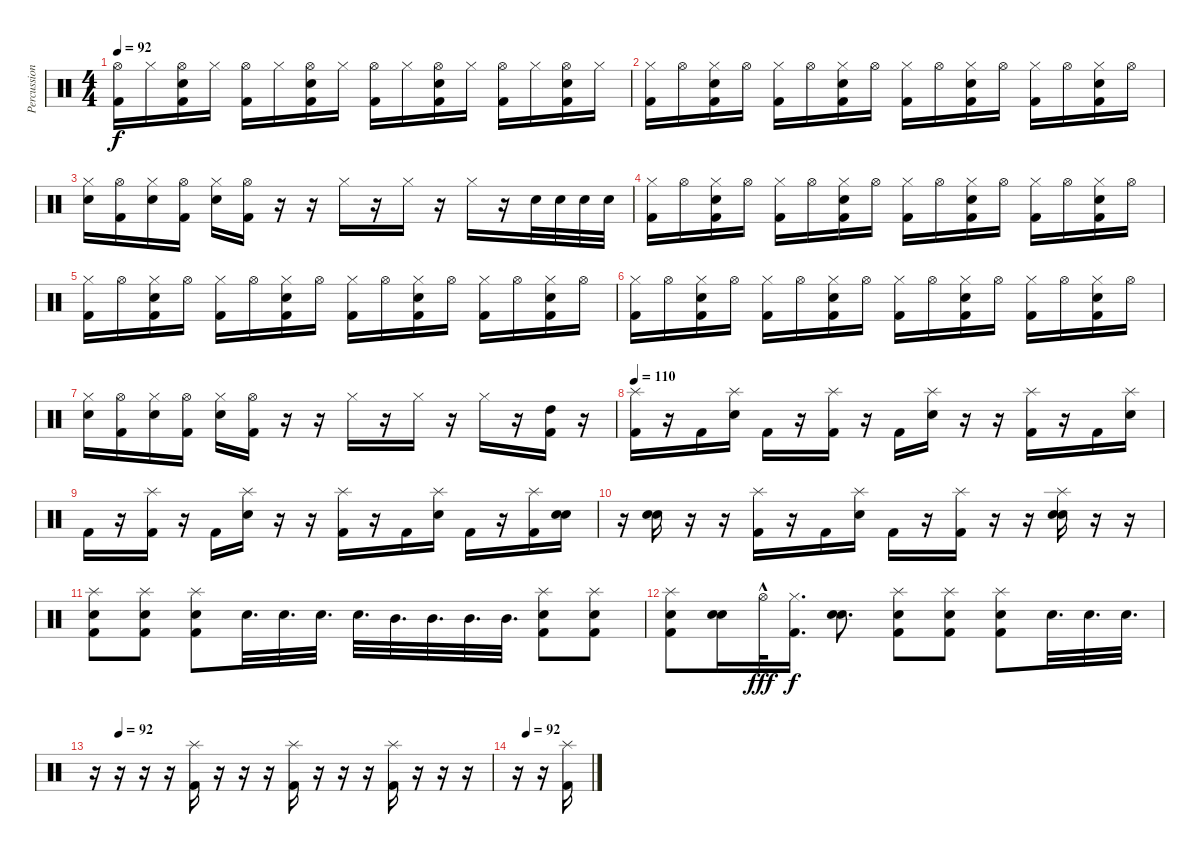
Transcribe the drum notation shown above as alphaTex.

\track ("Percussion" "Percussion") {instrument percussion}
\staff {score}
\articulation defaults
\ts (4 4)
\tempo 92
\clef neutral
\ks c
("Hi-Hat (open)" "Kick (hit) 2").16{dy f} "Hi-Hat (closed)".16 ("Hi-Hat (open)" "Electric Snare (hit)" "Kick (hit) 2").16 "Hi-Hat (closed)".16 ("Hi-Hat (open)" "Kick (hit) 2").16 "Hi-Hat (closed)".16 ("Hi-Hat (open)" "Electric Snare (hit)" "Kick (hit) 2").16 "Hi-Hat (closed)".16 ("Hi-Hat (open)" "Kick (hit) 2").16 "Hi-Hat (closed)".16 ("Hi-Hat (open)" "Electric Snare (hit)" "Kick (hit) 2").16 "Hi-Hat (closed)".16 ("Hi-Hat (open)" "Kick (hit) 2").16 "Hi-Hat (closed)".16 ("Hi-Hat (open)" "Electric Snare (hit)" "Kick (hit) 2").16 "Hi-Hat (closed)".16 |
("Hi-Hat (closed)" "Kick (hit) 2").16 "Hi-Hat (open)".16 ("Hi-Hat (closed)" "Electric Snare (hit)" "Kick (hit) 2").16 "Hi-Hat (open)".16 ("Hi-Hat (closed)" "Kick (hit) 2").16 "Hi-Hat (open)".16 ("Hi-Hat (closed)" "Electric Snare (hit)" "Kick (hit) 2").16 "Hi-Hat (open)".16 ("Hi-Hat (closed)" "Kick (hit) 2").16 "Hi-Hat (open)".16 ("Hi-Hat (closed)" "Electric Snare (hit)" "Kick (hit) 2").16 "Hi-Hat (open)".16 ("Hi-Hat (closed)" "Kick (hit) 2").16 "Hi-Hat (open)".16 ("Hi-Hat (closed)" "Electric Snare (hit)" "Kick (hit) 2").16 "Hi-Hat (open)".16 |
("Hi-Hat (closed)" "Electric Snare (hit)").16 ("Hi-Hat (open)" "Kick (hit) 2").16 ("Hi-Hat (closed)" "Electric Snare (hit)").16 ("Hi-Hat (open)" "Kick (hit) 2").16 ("Hi-Hat (closed)" "Electric Snare (hit)").16 ("Hi-Hat (open)" "Kick (hit) 2").16 r.16 r.16 "Hi-Hat (closed)".16 r.16 "Hi-Hat (closed)".16 r.16 "Hi-Hat (closed)".16 r.16 "Electric Snare (hit)".32 "Electric Snare (hit)".32 "Electric Snare (hit)".32 "Electric Snare (hit)".32 |
("Hi-Hat (closed)" "Kick (hit) 2").16 "Hi-Hat (open)".16 ("Hi-Hat (closed)" "Electric Snare (hit)" "Kick (hit) 2").16 "Hi-Hat (open)".16 ("Hi-Hat (closed)" "Kick (hit) 2").16 "Hi-Hat (open)".16 ("Hi-Hat (closed)" "Electric Snare (hit)" "Kick (hit) 2").16 "Hi-Hat (open)".16 ("Hi-Hat (closed)" "Kick (hit) 2").16 "Hi-Hat (open)".16 ("Hi-Hat (closed)" "Electric Snare (hit)" "Kick (hit) 2").16 "Hi-Hat (open)".16 ("Hi-Hat (closed)" "Kick (hit) 2").16 "Hi-Hat (open)".16 ("Hi-Hat (closed)" "Electric Snare (hit)" "Kick (hit) 2").16 "Hi-Hat (open)".16 |
("Hi-Hat (closed)" "Kick (hit) 2").16 "Hi-Hat (open)".16 ("Hi-Hat (closed)" "Electric Snare (hit)" "Kick (hit) 2").16 "Hi-Hat (open)".16 ("Hi-Hat (closed)" "Kick (hit) 2").16 "Hi-Hat (open)".16 ("Hi-Hat (closed)" "Electric Snare (hit)" "Kick (hit) 2").16 "Hi-Hat (open)".16 ("Hi-Hat (closed)" "Kick (hit) 2").16 "Hi-Hat (open)".16 ("Hi-Hat (closed)" "Electric Snare (hit)" "Kick (hit) 2").16 "Hi-Hat (open)".16 ("Hi-Hat (closed)" "Kick (hit) 2").16 "Hi-Hat (open)".16 ("Hi-Hat (closed)" "Electric Snare (hit)" "Kick (hit) 2").16 "Hi-Hat (open)".16 |
("Hi-Hat (closed)" "Kick (hit) 2").16 "Hi-Hat (open)".16 ("Hi-Hat (closed)" "Electric Snare (hit)" "Kick (hit) 2").16 "Hi-Hat (open)".16 ("Hi-Hat (closed)" "Kick (hit) 2").16 "Hi-Hat (open)".16 ("Hi-Hat (closed)" "Electric Snare (hit)" "Kick (hit) 2").16 "Hi-Hat (open)".16 ("Hi-Hat (closed)" "Kick (hit) 2").16 "Hi-Hat (open)".16 ("Hi-Hat (closed)" "Electric Snare (hit)" "Kick (hit) 2").16 "Hi-Hat (open)".16 ("Hi-Hat (closed)" "Kick (hit) 2").16 "Hi-Hat (open)".16 ("Hi-Hat (closed)" "Electric Snare (hit)" "Kick (hit) 2").16 "Hi-Hat (open)".16 |
("Hi-Hat (closed)" "Electric Snare (hit)").16 ("Hi-Hat (open)" "Kick (hit) 2").16 ("Hi-Hat (closed)" "Electric Snare (hit)").16 ("Hi-Hat (open)" "Kick (hit) 2").16 ("Hi-Hat (closed)" "Electric Snare (hit)").16 ("Hi-Hat (open)" "Kick (hit) 2").16 r.16 r.16 "Hi-Hat (closed)".16 r.16 "Hi-Hat (closed)".16 r.16 "Hi-Hat (closed)".16 r.16 ("High Tom (hit)" "Kick (hit) 2").16 r.16 |
\tempo 110
("Splash (hit)" "Kick (hit) 2").16 r.16 "Kick (hit) 2".16 ("Splash (hit)" "Electric Snare (hit)").16 "Kick (hit) 2".16 r.16 ("Splash (hit)" "Kick (hit) 2").16 r.16 "Kick (hit) 2".16 ("Splash (hit)" "Electric Snare (hit)").16 r.16 r.16 ("Splash (hit)" "Kick (hit) 2").16 r.16 "Kick (hit) 2".16 ("Splash (hit)" "Electric Snare (hit)").16 |
"Kick (hit) 2".16 r.16 ("Splash (hit)" "Kick (hit) 2").16 r.16 "Kick (hit) 2".16 ("Splash (hit)" "Electric Snare (hit)").16 r.16 r.16 ("Splash (hit)" "Kick (hit) 2").16 r.16 "Kick (hit) 2".16 ("Splash (hit)" "Electric Snare (hit)").16 "Kick (hit) 2".16 r.16 ("Splash (hit)" "Kick (hit) 2").16 ("Snare (hit) 2" "Electric Snare (hit)").16 |
r.16 ("Snare (hit) 2" "Electric Snare (hit)").16 r.16 r.16 ("Splash (hit)" "Kick (hit) 2").16 r.16 "Kick (hit) 2".16 ("Splash (hit)" "Electric Snare (hit)").16 "Kick (hit) 2".16 r.16 ("Splash (hit)" "Kick (hit) 2").16 r.16 r.16 ("Splash (hit)" "Snare (hit) 2" "Electric Snare (hit)").16 r.16 r.16 |
("Splash (hit)" "Electric Snare (hit)" "Kick (hit) 2").8 ("Splash (hit)" "Electric Snare (hit)" "Kick (hit) 2").8 ("Splash (hit)" "Electric Snare (hit)" "Kick (hit) 2").8 "Electric Snare (hit)".32{d} "Electric Snare (hit)".32{d} "Electric Snare (hit)".32{d} "Electric Snare (hit)".32{d} "Mid Tom (hit)".32{d} "Mid Tom (hit)".32{d} "Mid Tom (hit)".32{d} "Mid Tom (hit)".32{d} ("Splash (hit)" "Electric Snare (hit)" "Kick (hit) 2").8 ("Splash (hit)" "Electric Snare (hit)" "Kick (hit) 2").8 |
("Splash (hit)" "Electric Snare (hit)" "Kick (hit) 2").8 ("Snare (hit) 2" "Electric Snare (hit)").16 "Hi-Hat (open)"{hac}.32{dy fff} ("Hi-Hat (closed)" "Kick (hit) 2").16{d dy f} ("Snare (hit) 2" "Electric Snare (hit)").8{d} ("Splash (hit)" "Electric Snare (hit)" "Kick (hit) 2").8 ("Splash (hit)" "Electric Snare (hit)" "Kick (hit) 2").8 ("Splash (hit)" "Electric Snare (hit)" "Kick (hit) 2").8 "Electric Snare (hit)".32{d} "Electric Snare (hit)".32{d} "Electric Snare (hit)".32{d} |
\tempo (92 0.0625)
r.16 r.16 r.16 r.16 ("Splash (hit)" "Kick (hit) 2").16 r.16 r.16 r.16 ("Splash (hit)" "Kick (hit) 2").16 r.16 r.16 r.16 ("Splash (hit)" "Kick (hit) 2").16 r.16 r.16 r.16 |
\tempo (92 0.125)
r.16 r.16 ("Splash (hit)" "Kick (hit) 2").16
